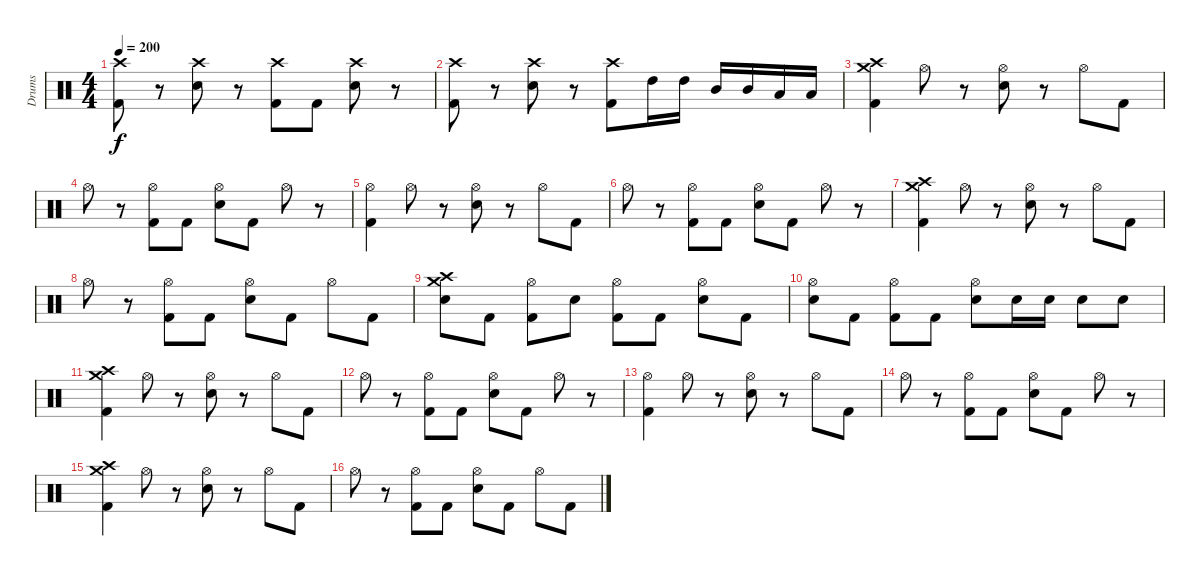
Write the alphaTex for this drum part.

\track ("Drums" "Drums") {instrument percussion}
\staff {score}
\articulation defaults
\ts (4 4)
\tempo 200
\clef neutral
\ks c
("Crash high (hit)" "Kick (hit) 2").8{dy f} r.8 ("Crash high (hit)" "Snare (hit) 2").8 r.8 ("Crash high (hit)" "Kick (hit) 2").8 "Kick (hit) 2".8 ("Crash high (hit)" "Snare (hit) 2").8 r.8 |
("Crash high (hit)" "Kick (hit) 2").8 r.8 ("Crash high (hit)" "Snare (hit) 2").8 r.8 ("Crash high (hit)" "Kick (hit) 2").8 "High Tom (hit)".16 "High Tom (hit)".16 "Mid Tom (hit)".16 "Mid Tom (hit)".16 "Low Tom (hit)".16 "Low Tom (hit)".16 |
("Crash high (hit)" "Crash medium (hit)" "Kick (hit) 2").4 "Hi-Hat (open)".8 r.8 ("Hi-Hat (open)" "Snare (hit) 2").8 r.8 "Hi-Hat (open)".8 "Kick (hit) 2".8 |
"Hi-Hat (open)".8 r.8 ("Hi-Hat (open)" "Kick (hit) 2").8 "Kick (hit) 2".8 ("Hi-Hat (open)" "Snare (hit) 2").8 "Kick (hit) 2".8 "Hi-Hat (open)".8 r.8 |
("Hi-Hat (open)" "Kick (hit) 2").4 "Hi-Hat (open)".8 r.8 ("Hi-Hat (open)" "Snare (hit) 2").8 r.8 "Hi-Hat (open)".8 "Kick (hit) 2".8 |
"Hi-Hat (open)".8 r.8 ("Hi-Hat (open)" "Kick (hit) 2").8 "Kick (hit) 2".8 ("Hi-Hat (open)" "Snare (hit) 2").8 "Kick (hit) 2".8 "Hi-Hat (open)".8 r.8 |
("Crash high (hit)" "Crash medium (hit)" "Kick (hit) 2").4 "Hi-Hat (open)".8 r.8 ("Hi-Hat (open)" "Snare (hit) 2").8 r.8 "Hi-Hat (open)".8 "Kick (hit) 2".8 |
"Hi-Hat (open)".8 r.8 ("Hi-Hat (open)" "Kick (hit) 2").8 "Kick (hit) 2".8 ("Hi-Hat (open)" "Snare (hit) 2").8 "Kick (hit) 2".8 "Hi-Hat (open)".8 "Kick (hit) 2".8 |
("Crash high (hit)" "Crash medium (hit)" "Snare (hit) 2").8 "Kick (hit) 2".8 ("Hi-Hat (open)" "Kick (hit) 2").8 "Snare (hit) 2".8 ("Hi-Hat (open)" "Kick (hit) 2").8 "Kick (hit) 2".8 ("Hi-Hat (open)" "Snare (hit) 2").8 "Kick (hit) 2".8 |
("Hi-Hat (open)" "Snare (hit) 2").8 "Kick (hit) 2".8 ("Hi-Hat (open)" "Kick (hit) 2").8 "Kick (hit) 2".8 ("Hi-Hat (open)" "Snare (hit) 2").8 "Snare (hit) 2".16 "Snare (hit) 2".16 "Snare (hit) 2".8 "Snare (hit) 2".8 |
("Crash high (hit)" "Crash medium (hit)" "Kick (hit) 2").4 "Hi-Hat (open)".8 r.8 ("Hi-Hat (open)" "Snare (hit) 2").8 r.8 "Hi-Hat (open)".8 "Kick (hit) 2".8 |
"Hi-Hat (open)".8 r.8 ("Hi-Hat (open)" "Kick (hit) 2").8 "Kick (hit) 2".8 ("Hi-Hat (open)" "Snare (hit) 2").8 "Kick (hit) 2".8 "Hi-Hat (open)".8 r.8 |
("Hi-Hat (open)" "Kick (hit) 2").4 "Hi-Hat (open)".8 r.8 ("Hi-Hat (open)" "Snare (hit) 2").8 r.8 "Hi-Hat (open)".8 "Kick (hit) 2".8 |
"Hi-Hat (open)".8 r.8 ("Hi-Hat (open)" "Kick (hit) 2").8 "Kick (hit) 2".8 ("Hi-Hat (open)" "Snare (hit) 2").8 "Kick (hit) 2".8 "Hi-Hat (open)".8 r.8 |
("Crash high (hit)" "Crash medium (hit)" "Kick (hit) 2").4 "Hi-Hat (open)".8 r.8 ("Hi-Hat (open)" "Snare (hit) 2").8 r.8 "Hi-Hat (open)".8 "Kick (hit) 2".8 |
"Hi-Hat (open)".8 r.8 ("Hi-Hat (open)" "Kick (hit) 2").8 "Kick (hit) 2".8 ("Hi-Hat (open)" "Snare (hit) 2").8 "Kick (hit) 2".8 "Hi-Hat (open)".8 "Kick (hit) 2".8
